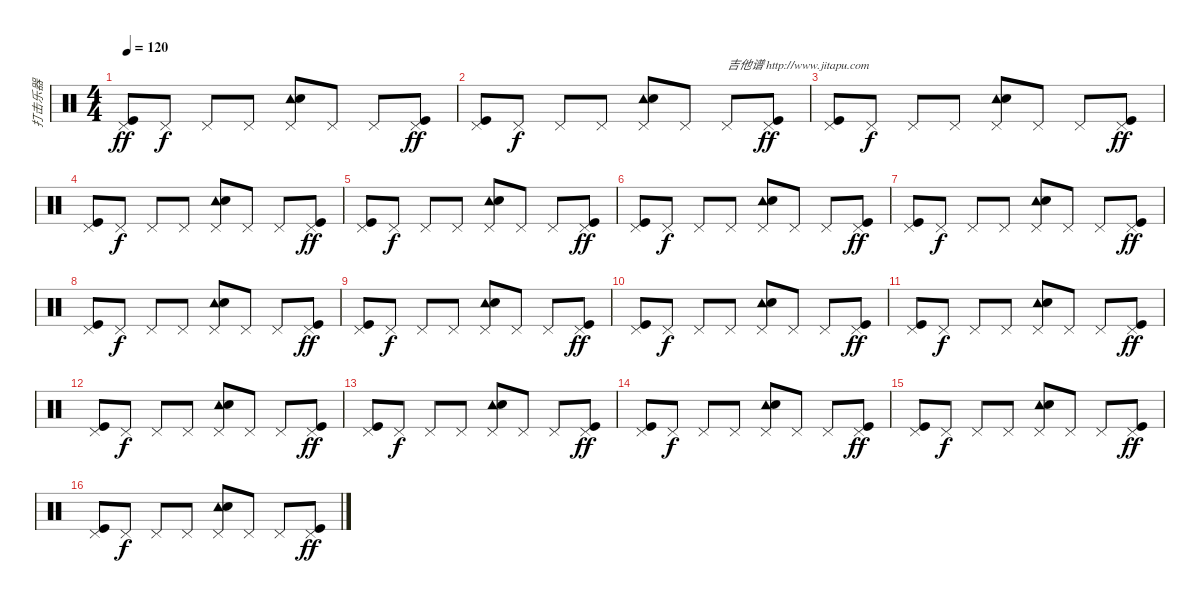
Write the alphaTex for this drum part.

\track ("打击乐器" "打击乐器") {instrument percussion}
\staff {score}
\articulation defaults
\ts (4 4)
\tempo 120
\clef neutral
\ks c
("Pedal Hi-Hat (hit)" "Kick (hit)").8{dy ff} "Pedal Hi-Hat (hit)".8{dy f} "Pedal Hi-Hat (hit)".8 "Pedal Hi-Hat (hit)".8 ("Pedal Hi-Hat (hit)" "Tambourine (hit)" "Electric Snare (hit)").8 "Pedal Hi-Hat (hit)".8 "Pedal Hi-Hat (hit)".8 ("Pedal Hi-Hat (hit)" "Kick (hit)").8{dy ff} |
("Pedal Hi-Hat (hit)" "Kick (hit)").8 "Pedal Hi-Hat (hit)".8{dy f} "Pedal Hi-Hat (hit)".8 "Pedal Hi-Hat (hit)".8 ("Pedal Hi-Hat (hit)" "Tambourine (hit)" "Electric Snare (hit)").8 "Pedal Hi-Hat (hit)".8 "Pedal Hi-Hat (hit)".8{txt "吉他谱 http://www.jitapu.com"} ("Pedal Hi-Hat (hit)" "Kick (hit)").8{dy ff} |
("Pedal Hi-Hat (hit)" "Kick (hit)").8 "Pedal Hi-Hat (hit)".8{dy f} "Pedal Hi-Hat (hit)".8 "Pedal Hi-Hat (hit)".8 ("Pedal Hi-Hat (hit)" "Tambourine (hit)" "Electric Snare (hit)").8 "Pedal Hi-Hat (hit)".8 "Pedal Hi-Hat (hit)".8 ("Pedal Hi-Hat (hit)" "Kick (hit)").8{dy ff} |
("Pedal Hi-Hat (hit)" "Kick (hit)").8 "Pedal Hi-Hat (hit)".8{dy f} "Pedal Hi-Hat (hit)".8 "Pedal Hi-Hat (hit)".8 ("Pedal Hi-Hat (hit)" "Tambourine (hit)" "Electric Snare (hit)").8 "Pedal Hi-Hat (hit)".8 "Pedal Hi-Hat (hit)".8 ("Pedal Hi-Hat (hit)" "Kick (hit)").8{dy ff} |
("Pedal Hi-Hat (hit)" "Kick (hit)").8 "Pedal Hi-Hat (hit)".8{dy f} "Pedal Hi-Hat (hit)".8 "Pedal Hi-Hat (hit)".8 ("Pedal Hi-Hat (hit)" "Tambourine (hit)" "Electric Snare (hit)").8 "Pedal Hi-Hat (hit)".8 "Pedal Hi-Hat (hit)".8 ("Pedal Hi-Hat (hit)" "Kick (hit)").8{dy ff} |
("Pedal Hi-Hat (hit)" "Kick (hit)").8 "Pedal Hi-Hat (hit)".8{dy f} "Pedal Hi-Hat (hit)".8 "Pedal Hi-Hat (hit)".8 ("Pedal Hi-Hat (hit)" "Tambourine (hit)" "Electric Snare (hit)").8 "Pedal Hi-Hat (hit)".8 "Pedal Hi-Hat (hit)".8 ("Pedal Hi-Hat (hit)" "Kick (hit)").8{dy ff} |
("Pedal Hi-Hat (hit)" "Kick (hit)").8 "Pedal Hi-Hat (hit)".8{dy f} "Pedal Hi-Hat (hit)".8 "Pedal Hi-Hat (hit)".8 ("Pedal Hi-Hat (hit)" "Tambourine (hit)" "Electric Snare (hit)").8 "Pedal Hi-Hat (hit)".8 "Pedal Hi-Hat (hit)".8 ("Pedal Hi-Hat (hit)" "Kick (hit)").8{dy ff} |
("Pedal Hi-Hat (hit)" "Kick (hit)").8 "Pedal Hi-Hat (hit)".8{dy f} "Pedal Hi-Hat (hit)".8 "Pedal Hi-Hat (hit)".8 ("Pedal Hi-Hat (hit)" "Tambourine (hit)" "Electric Snare (hit)").8 "Pedal Hi-Hat (hit)".8 "Pedal Hi-Hat (hit)".8 ("Pedal Hi-Hat (hit)" "Kick (hit)").8{dy ff} |
("Pedal Hi-Hat (hit)" "Kick (hit)").8 "Pedal Hi-Hat (hit)".8{dy f} "Pedal Hi-Hat (hit)".8 "Pedal Hi-Hat (hit)".8 ("Pedal Hi-Hat (hit)" "Tambourine (hit)" "Electric Snare (hit)").8 "Pedal Hi-Hat (hit)".8 "Pedal Hi-Hat (hit)".8 ("Pedal Hi-Hat (hit)" "Kick (hit)").8{dy ff} |
("Pedal Hi-Hat (hit)" "Kick (hit)").8 "Pedal Hi-Hat (hit)".8{dy f} "Pedal Hi-Hat (hit)".8 "Pedal Hi-Hat (hit)".8 ("Pedal Hi-Hat (hit)" "Tambourine (hit)" "Electric Snare (hit)").8 "Pedal Hi-Hat (hit)".8 "Pedal Hi-Hat (hit)".8 ("Pedal Hi-Hat (hit)" "Kick (hit)").8{dy ff} |
("Pedal Hi-Hat (hit)" "Kick (hit)").8 "Pedal Hi-Hat (hit)".8{dy f} "Pedal Hi-Hat (hit)".8 "Pedal Hi-Hat (hit)".8 ("Pedal Hi-Hat (hit)" "Tambourine (hit)" "Electric Snare (hit)").8 "Pedal Hi-Hat (hit)".8 "Pedal Hi-Hat (hit)".8 ("Pedal Hi-Hat (hit)" "Kick (hit)").8{dy ff} |
("Pedal Hi-Hat (hit)" "Kick (hit)").8 "Pedal Hi-Hat (hit)".8{dy f} "Pedal Hi-Hat (hit)".8 "Pedal Hi-Hat (hit)".8 ("Pedal Hi-Hat (hit)" "Tambourine (hit)" "Electric Snare (hit)").8 "Pedal Hi-Hat (hit)".8 "Pedal Hi-Hat (hit)".8 ("Pedal Hi-Hat (hit)" "Kick (hit)").8{dy ff} |
("Pedal Hi-Hat (hit)" "Kick (hit)").8 "Pedal Hi-Hat (hit)".8{dy f} "Pedal Hi-Hat (hit)".8 "Pedal Hi-Hat (hit)".8 ("Pedal Hi-Hat (hit)" "Tambourine (hit)" "Electric Snare (hit)").8 "Pedal Hi-Hat (hit)".8 "Pedal Hi-Hat (hit)".8 ("Pedal Hi-Hat (hit)" "Kick (hit)").8{dy ff} |
("Pedal Hi-Hat (hit)" "Kick (hit)").8 "Pedal Hi-Hat (hit)".8{dy f} "Pedal Hi-Hat (hit)".8 "Pedal Hi-Hat (hit)".8 ("Pedal Hi-Hat (hit)" "Tambourine (hit)" "Electric Snare (hit)").8 "Pedal Hi-Hat (hit)".8 "Pedal Hi-Hat (hit)".8 ("Pedal Hi-Hat (hit)" "Kick (hit)").8{dy ff} |
("Pedal Hi-Hat (hit)" "Kick (hit)").8 "Pedal Hi-Hat (hit)".8{dy f} "Pedal Hi-Hat (hit)".8 "Pedal Hi-Hat (hit)".8 ("Pedal Hi-Hat (hit)" "Tambourine (hit)" "Electric Snare (hit)").8 "Pedal Hi-Hat (hit)".8 "Pedal Hi-Hat (hit)".8 ("Pedal Hi-Hat (hit)" "Kick (hit)").8{dy ff} |
("Pedal Hi-Hat (hit)" "Kick (hit)").8 "Pedal Hi-Hat (hit)".8{dy f} "Pedal Hi-Hat (hit)".8 "Pedal Hi-Hat (hit)".8 ("Pedal Hi-Hat (hit)" "Tambourine (hit)" "Electric Snare (hit)").8 "Pedal Hi-Hat (hit)".8 "Pedal Hi-Hat (hit)".8 ("Pedal Hi-Hat (hit)" "Kick (hit)").8{dy ff}
